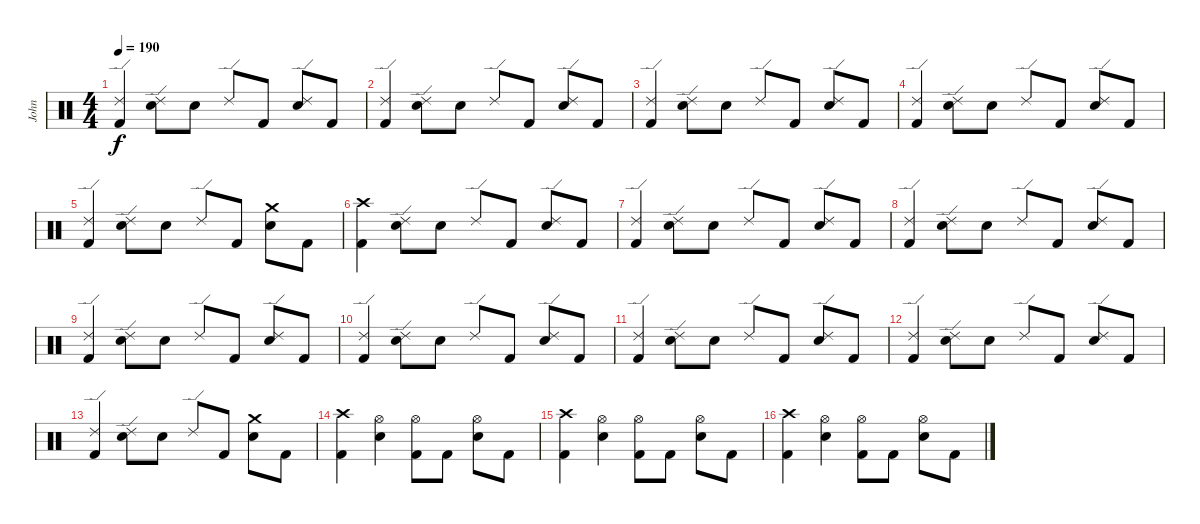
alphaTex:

\track ("John" "John") {instrument percussion}
\staff {score}
\articulation defaults
\ts (4 4)
\tempo 190
\clef neutral
\ks c
("Kick (hit) 2" "Ride (edge) 2").4{dy f} ("Snare (hit) 2" "Ride (edge) 2").8 "Snare (hit) 2".8 "Ride (edge) 2".8 "Kick (hit) 2".8 ("Snare (hit) 2" "Ride (edge) 2").8 "Kick (hit) 2".8 |
("Kick (hit) 2" "Ride (edge) 2").4 ("Snare (hit) 2" "Ride (edge) 2").8 "Snare (hit) 2".8 "Ride (edge) 2".8 "Kick (hit) 2".8 ("Snare (hit) 2" "Ride (edge) 2").8 "Kick (hit) 2".8 |
("Kick (hit) 2" "Ride (edge) 2").4 ("Snare (hit) 2" "Ride (edge) 2").8 "Snare (hit) 2".8 "Ride (edge) 2".8 "Kick (hit) 2".8 ("Snare (hit) 2" "Ride (edge) 2").8 "Kick (hit) 2".8 |
("Kick (hit) 2" "Ride (edge) 2").4 ("Snare (hit) 2" "Ride (edge) 2").8 "Snare (hit) 2".8 "Ride (edge) 2".8 "Kick (hit) 2".8 ("Snare (hit) 2" "Ride (edge) 2").8 "Kick (hit) 2".8 |
("Kick (hit) 2" "Ride (edge) 2").4 ("Snare (hit) 2" "Ride (edge) 2").8 "Snare (hit) 2".8 "Ride (edge) 2".8 "Kick (hit) 2".8 ("Snare (hit) 2" "Crash medium (hit)").8 "Kick (hit) 2".8 |
("Kick (hit) 2" "Crash high (hit)").4 ("Snare (hit) 2" "Ride (edge) 2").8 "Snare (hit) 2".8 "Ride (edge) 2".8 "Kick (hit) 2".8 ("Snare (hit) 2" "Ride (edge) 2").8 "Kick (hit) 2".8 |
("Kick (hit) 2" "Ride (edge) 2").4 ("Snare (hit) 2" "Ride (edge) 2").8 "Snare (hit) 2".8 "Ride (edge) 2".8 "Kick (hit) 2".8 ("Snare (hit) 2" "Ride (edge) 2").8 "Kick (hit) 2".8 |
("Kick (hit) 2" "Ride (edge) 2").4 ("Snare (hit) 2" "Ride (edge) 2").8 "Snare (hit) 2".8 "Ride (edge) 2".8 "Kick (hit) 2".8 ("Snare (hit) 2" "Ride (edge) 2").8 "Kick (hit) 2".8 |
("Kick (hit) 2" "Ride (edge) 2").4 ("Snare (hit) 2" "Ride (edge) 2").8 "Snare (hit) 2".8 "Ride (edge) 2".8 "Kick (hit) 2".8 ("Snare (hit) 2" "Ride (edge) 2").8 "Kick (hit) 2".8 |
("Kick (hit) 2" "Ride (edge) 2").4 ("Snare (hit) 2" "Ride (edge) 2").8 "Snare (hit) 2".8 "Ride (edge) 2".8 "Kick (hit) 2".8 ("Snare (hit) 2" "Ride (edge) 2").8 "Kick (hit) 2".8 |
("Kick (hit) 2" "Ride (edge) 2").4 ("Snare (hit) 2" "Ride (edge) 2").8 "Snare (hit) 2".8 "Ride (edge) 2".8 "Kick (hit) 2".8 ("Snare (hit) 2" "Ride (edge) 2").8 "Kick (hit) 2".8 |
("Kick (hit) 2" "Ride (edge) 2").4 ("Snare (hit) 2" "Ride (edge) 2").8 "Snare (hit) 2".8 "Ride (edge) 2".8 "Kick (hit) 2".8 ("Snare (hit) 2" "Ride (edge) 2").8 "Kick (hit) 2".8 |
("Kick (hit) 2" "Ride (edge) 2").4 ("Snare (hit) 2" "Ride (edge) 2").8 "Snare (hit) 2".8 "Ride (edge) 2".8 "Kick (hit) 2".8 ("Snare (hit) 2" "Crash medium (hit)").8 "Kick (hit) 2".8 |
("Kick (hit) 2" "Crash high (hit)").4 ("Snare (hit) 2" "Hi-Hat (open)").4 ("Kick (hit) 2" "Hi-Hat (open)").8 "Kick (hit) 2".8 ("Snare (hit) 2" "Hi-Hat (open)").8 "Kick (hit) 2".8 |
("Kick (hit) 2" "Crash high (hit)").4 ("Snare (hit) 2" "Hi-Hat (open)").4 ("Kick (hit) 2" "Hi-Hat (open)").8 "Kick (hit) 2".8 ("Snare (hit) 2" "Hi-Hat (open)").8 "Kick (hit) 2".8 |
("Kick (hit) 2" "Crash high (hit)").4 ("Snare (hit) 2" "Hi-Hat (open)").4 ("Kick (hit) 2" "Hi-Hat (open)").8 "Kick (hit) 2".8 ("Snare (hit) 2" "Hi-Hat (open)").8 "Kick (hit) 2".8
